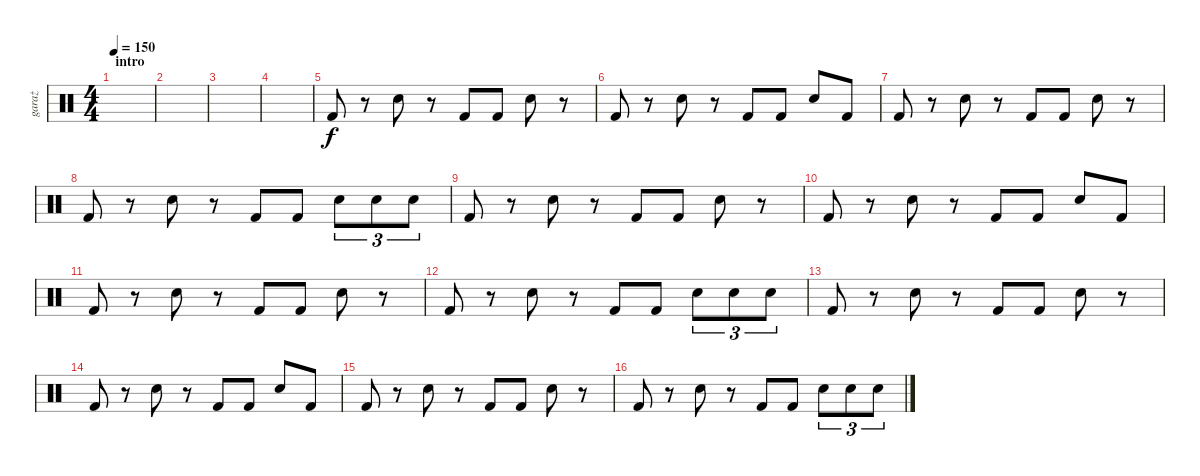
\track ("garaż" "garaż") {instrument percussion}
\staff {score}
\articulation defaults
\ts (4 4)
\section ("" "intro")
\tempo 150
\clef neutral
\ks c
|
|
|
|
"Kick (hit) 2".8 r.8 "Snare (hit) 2".8 r.8 "Kick (hit) 2".8 "Kick (hit) 2".8 "Snare (hit) 2".8 r.8 |
"Kick (hit) 2".8 r.8 "Snare (hit) 2".8 r.8 "Kick (hit) 2".8 "Kick (hit) 2".8 "Snare (hit) 2".8 "Kick (hit) 2".8 |
"Kick (hit) 2".8 r.8 "Snare (hit) 2".8 r.8 "Kick (hit) 2".8 "Kick (hit) 2".8 "Snare (hit) 2".8 r.8 |
"Kick (hit) 2".8 r.8 "Snare (hit) 2".8 r.8 "Kick (hit) 2".8 "Kick (hit) 2".8 "Snare (hit) 2".8{tu (3 2)} "Snare (hit) 2".8{tu (3 2)} "Snare (hit) 2".8{tu (3 2)} |
"Kick (hit) 2".8 r.8 "Snare (hit) 2".8 r.8 "Kick (hit) 2".8 "Kick (hit) 2".8 "Snare (hit) 2".8 r.8 |
"Kick (hit) 2".8 r.8 "Snare (hit) 2".8 r.8 "Kick (hit) 2".8 "Kick (hit) 2".8 "Snare (hit) 2".8 "Kick (hit) 2".8 |
"Kick (hit) 2".8 r.8 "Snare (hit) 2".8 r.8 "Kick (hit) 2".8 "Kick (hit) 2".8 "Snare (hit) 2".8 r.8 |
"Kick (hit) 2".8 r.8 "Snare (hit) 2".8 r.8 "Kick (hit) 2".8 "Kick (hit) 2".8 "Snare (hit) 2".8{tu (3 2)} "Snare (hit) 2".8{tu (3 2)} "Snare (hit) 2".8{tu (3 2)} |
"Kick (hit) 2".8 r.8 "Snare (hit) 2".8 r.8 "Kick (hit) 2".8 "Kick (hit) 2".8 "Snare (hit) 2".8 r.8 |
"Kick (hit) 2".8 r.8 "Snare (hit) 2".8 r.8 "Kick (hit) 2".8 "Kick (hit) 2".8 "Snare (hit) 2".8 "Kick (hit) 2".8 |
"Kick (hit) 2".8 r.8 "Snare (hit) 2".8 r.8 "Kick (hit) 2".8 "Kick (hit) 2".8 "Snare (hit) 2".8 r.8 |
"Kick (hit) 2".8 r.8 "Snare (hit) 2".8 r.8 "Kick (hit) 2".8 "Kick (hit) 2".8 "Snare (hit) 2".8{tu (3 2)} "Snare (hit) 2".8{tu (3 2)} "Snare (hit) 2".8{tu (3 2)}
